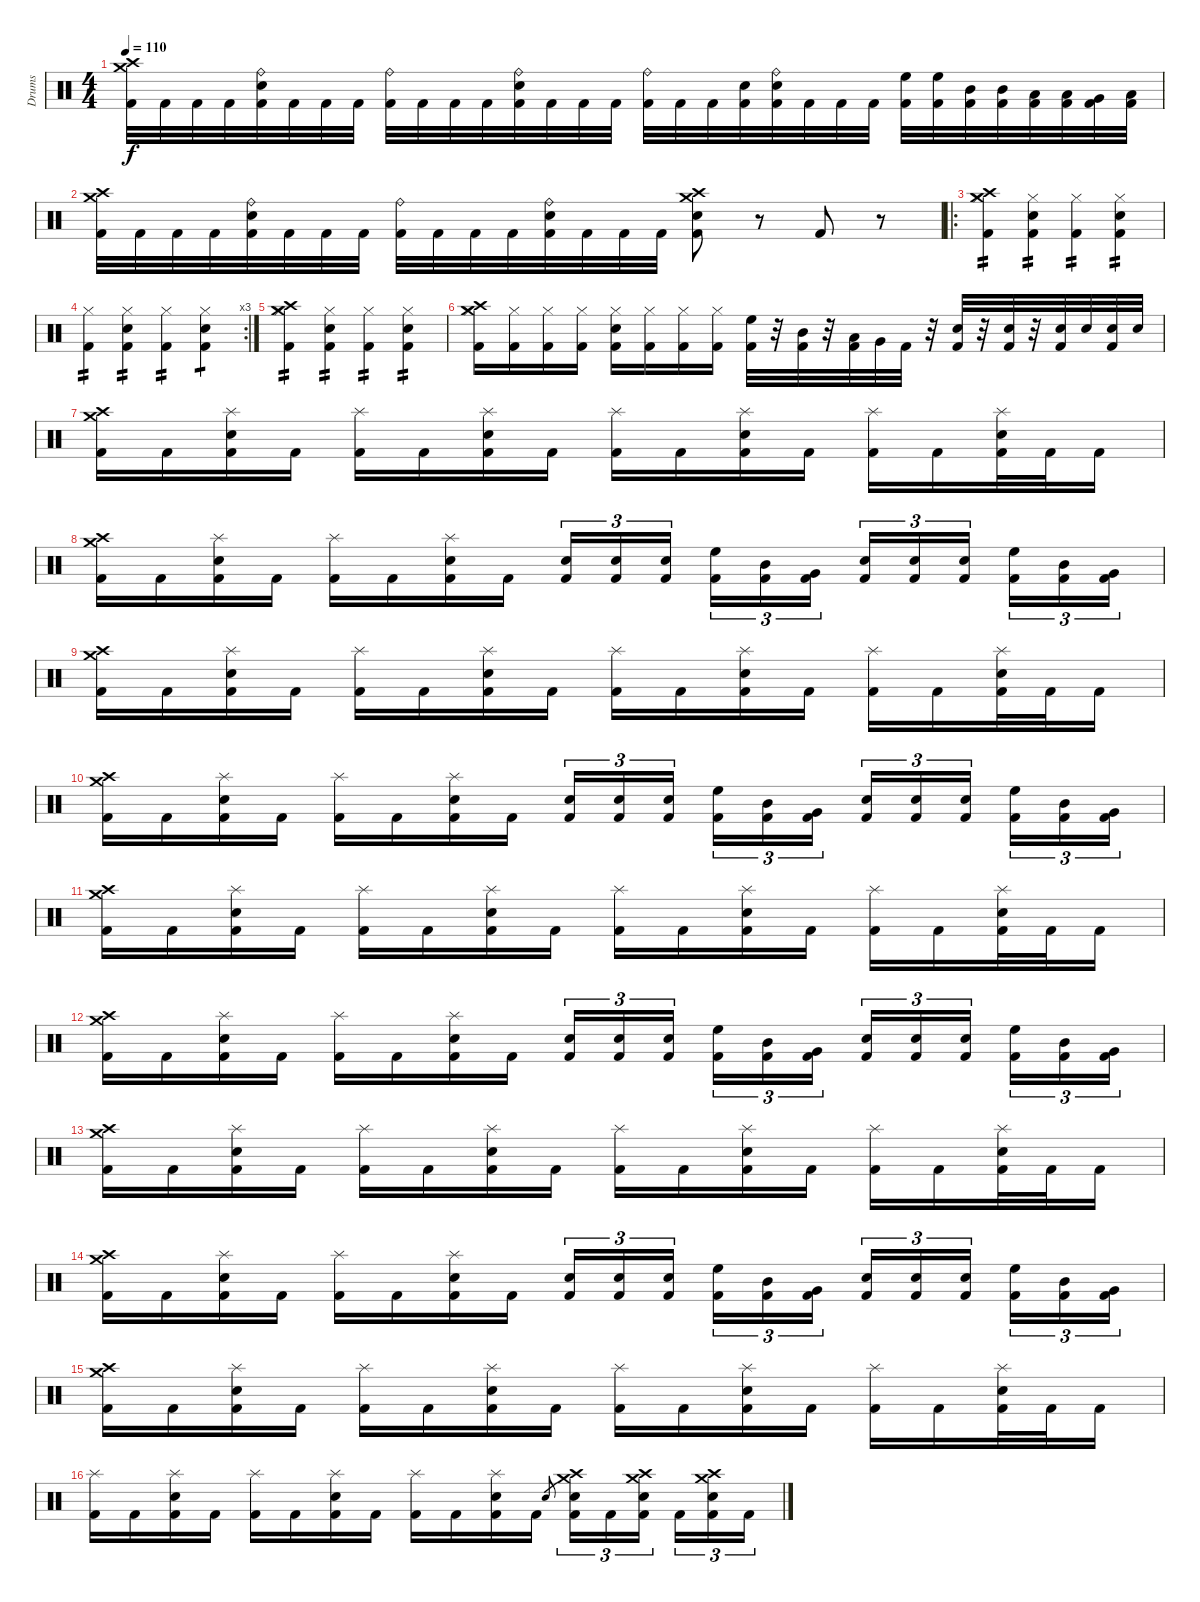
\track ("Drums" "Drums") {instrument percussion}
\staff {score}
\articulation defaults
\ts (4 4)
\tempo 110
\clef neutral
\ks c
("Crash medium (hit)" "Crash high (hit)" "Kick (hit) 2").32{dy f} "Kick (hit) 2".32 "Kick (hit) 2".32 "Kick (hit) 2".32 ("Ride (bell)" "Electric Snare (hit)" "Kick (hit) 2").32 "Kick (hit) 2".32 "Kick (hit) 2".32 "Kick (hit) 2".32 ("Ride (bell)" "Kick (hit) 2").32 "Kick (hit) 2".32 "Kick (hit) 2".32 "Kick (hit) 2".32 ("Ride (bell)" "Electric Snare (hit)" "Kick (hit) 2").32 "Kick (hit) 2".32 "Kick (hit) 2".32 "Kick (hit) 2".32 ("Ride (bell)" "Kick (hit) 2").32 "Kick (hit) 2".32 "Kick (hit) 2".32 ("Electric Snare (hit)" "Kick (hit) 2").32 ("Ride (bell)" "Electric Snare (hit)" "Kick (hit) 2").32 "Kick (hit) 2".32 "Kick (hit) 2".32 "Kick (hit) 2".32 ("High Floor Tom (hit)" "Kick (hit) 2").32 ("High Floor Tom (hit)" "Kick (hit) 2").32 ("Mid Tom (hit)" "Kick (hit) 2").32 ("Mid Tom (hit)" "Kick (hit) 2").32 ("Low Tom (hit)" "Kick (hit) 2").32 ("Low Tom (hit)" "Kick (hit) 2").32 ("Very Low Tom (hit)" "Kick (hit) 2").32 ("Low Floor Tom (hit)" "Kick (hit) 2").32 |
("Crash medium (hit)" "Crash high (hit)" "Kick (hit) 2").32 "Kick (hit) 2".32 "Kick (hit) 2".32 "Kick (hit) 2".32 ("Ride (bell)" "Electric Snare (hit)" "Kick (hit) 2").32 "Kick (hit) 2".32 "Kick (hit) 2".32 "Kick (hit) 2".32 ("Ride (bell)" "Kick (hit) 2").32 "Kick (hit) 2".32 "Kick (hit) 2".32 "Kick (hit) 2".32 ("Ride (bell)" "Electric Snare (hit)" "Kick (hit) 2").32 "Kick (hit) 2".32 "Kick (hit) 2".32 "Kick (hit) 2".32 ("Crash medium (hit)" "Crash high (hit)" "Electric Snare (hit)" "Kick (hit) 2").8 r.8 "Kick (hit) 2".8 r.8 |
\ro
("Crash medium (hit)" "Crash high (hit)" "Hi-Hat (closed)" "Kick (hit) 2").4{tp 2} ("Hi-Hat (closed)" "Electric Snare (hit)" "Kick (hit) 2").4{tp 2} ("Hi-Hat (closed)" "Kick (hit) 2").4{tp 2} ("Hi-Hat (closed)" "Electric Snare (hit)" "Kick (hit) 2").4{tp 2} |
\rc 3
("Hi-Hat (closed)" "Kick (hit) 2").4{tp 2} ("Hi-Hat (closed)" "Electric Snare (hit)" "Kick (hit) 2").4{tp 2} ("Hi-Hat (closed)" "Kick (hit) 2").4{tp 2} ("Hi-Hat (closed)" "Electric Snare (hit)" "Kick (hit) 2").4{tp 1} |
("Crash medium (hit)" "Crash high (hit)" "Hi-Hat (closed)" "Kick (hit) 2").4{tp 2} ("Hi-Hat (closed)" "Electric Snare (hit)" "Kick (hit) 2").4{tp 2} ("Hi-Hat (closed)" "Kick (hit) 2").4{tp 2} ("Hi-Hat (closed)" "Electric Snare (hit)" "Kick (hit) 2").4{tp 2} |
("Crash medium (hit)" "Crash high (hit)" "Hi-Hat (closed)" "Kick (hit) 2").16 ("Hi-Hat (closed)" "Kick (hit) 2").16 ("Hi-Hat (closed)" "Kick (hit) 2").16 ("Hi-Hat (closed)" "Kick (hit) 2").16 ("Hi-Hat (closed)" "Electric Snare (hit)" "Kick (hit) 2").16 ("Hi-Hat (closed)" "Kick (hit) 2").16 ("Hi-Hat (closed)" "Kick (hit) 2").16 ("Hi-Hat (closed)" "Kick (hit) 2").16 ("High Floor Tom (hit)" "Kick (hit) 2").32 r.32 ("Mid Tom (hit)" "Kick (hit) 2").32 r.32 ("Low Tom (hit)" "Kick (hit) 2").32 "Very Low Tom (hit)".32 "Kick (hit) 2".32 r.32 ("Electric Snare (hit)" "Kick (hit) 2").32 r.32 ("Electric Snare (hit)" "Kick (hit) 2").32 r.32 ("Electric Snare (hit)" "Kick (hit) 2").32 "Electric Snare (hit)".32 ("Electric Snare (hit)" "Kick (hit) 2").32 "Electric Snare (hit)".32 |
("Crash medium (hit)" "Crash high (hit)" "Kick (hit) 2").16 "Kick (hit) 2".16 ("Splash (hit)" "Electric Snare (hit)" "Kick (hit) 2").16 "Kick (hit) 2".16 ("Splash (hit)" "Kick (hit) 2").16 "Kick (hit) 2".16 ("Splash (hit)" "Electric Snare (hit)" "Kick (hit) 2").16 "Kick (hit) 2".16 ("Splash (hit)" "Kick (hit) 2").16 "Kick (hit) 2".16 ("Splash (hit)" "Electric Snare (hit)" "Kick (hit) 2").16 "Kick (hit) 2".16 ("Splash (hit)" "Kick (hit) 2").16 "Kick (hit) 2".16 ("Splash (hit)" "Electric Snare (hit)" "Kick (hit) 2").32 "Kick (hit) 2".32 "Kick (hit) 2".16 |
("Crash medium (hit)" "Crash high (hit)" "Kick (hit) 2").16 "Kick (hit) 2".16 ("Splash (hit)" "Electric Snare (hit)" "Kick (hit) 2").16 "Kick (hit) 2".16 ("Splash (hit)" "Kick (hit) 2").16 "Kick (hit) 2".16 ("Splash (hit)" "Electric Snare (hit)" "Kick (hit) 2").16 "Kick (hit) 2".16 ("Electric Snare (hit)" "Kick (hit) 2").16{tu (3 2)} ("Electric Snare (hit)" "Kick (hit) 2").16{tu (3 2)} ("Electric Snare (hit)" "Kick (hit) 2").16{tu (3 2)} ("High Floor Tom (hit)" "Kick (hit) 2").16{tu (3 2)} ("Mid Tom (hit)" "Kick (hit) 2").16{tu (3 2)} ("Very Low Tom (hit)" "Kick (hit) 2").16{tu (3 2)} ("Electric Snare (hit)" "Kick (hit) 2").16{tu (3 2)} ("Electric Snare (hit)" "Kick (hit) 2").16{tu (3 2)} ("Electric Snare (hit)" "Kick (hit) 2").16{tu (3 2)} ("High Floor Tom (hit)" "Kick (hit) 2").16{tu (3 2)} ("Mid Tom (hit)" "Kick (hit) 2").16{tu (3 2)} ("Very Low Tom (hit)" "Kick (hit) 2").16{tu (3 2)} |
("Crash medium (hit)" "Crash high (hit)" "Kick (hit) 2").16 "Kick (hit) 2".16 ("Splash (hit)" "Electric Snare (hit)" "Kick (hit) 2").16 "Kick (hit) 2".16 ("Splash (hit)" "Kick (hit) 2").16 "Kick (hit) 2".16 ("Splash (hit)" "Electric Snare (hit)" "Kick (hit) 2").16 "Kick (hit) 2".16 ("Splash (hit)" "Kick (hit) 2").16 "Kick (hit) 2".16 ("Splash (hit)" "Electric Snare (hit)" "Kick (hit) 2").16 "Kick (hit) 2".16 ("Splash (hit)" "Kick (hit) 2").16 "Kick (hit) 2".16 ("Splash (hit)" "Electric Snare (hit)" "Kick (hit) 2").32 "Kick (hit) 2".32 "Kick (hit) 2".16 |
("Crash medium (hit)" "Crash high (hit)" "Kick (hit) 2").16 "Kick (hit) 2".16 ("Splash (hit)" "Electric Snare (hit)" "Kick (hit) 2").16 "Kick (hit) 2".16 ("Splash (hit)" "Kick (hit) 2").16 "Kick (hit) 2".16 ("Splash (hit)" "Electric Snare (hit)" "Kick (hit) 2").16 "Kick (hit) 2".16 ("Electric Snare (hit)" "Kick (hit) 2").16{tu (3 2)} ("Electric Snare (hit)" "Kick (hit) 2").16{tu (3 2)} ("Electric Snare (hit)" "Kick (hit) 2").16{tu (3 2)} ("High Floor Tom (hit)" "Kick (hit) 2").16{tu (3 2)} ("Mid Tom (hit)" "Kick (hit) 2").16{tu (3 2)} ("Very Low Tom (hit)" "Kick (hit) 2").16{tu (3 2)} ("Electric Snare (hit)" "Kick (hit) 2").16{tu (3 2)} ("Electric Snare (hit)" "Kick (hit) 2").16{tu (3 2)} ("Electric Snare (hit)" "Kick (hit) 2").16{tu (3 2)} ("High Floor Tom (hit)" "Kick (hit) 2").16{tu (3 2)} ("Mid Tom (hit)" "Kick (hit) 2").16{tu (3 2)} ("Very Low Tom (hit)" "Kick (hit) 2").16{tu (3 2)} |
("Crash medium (hit)" "Crash high (hit)" "Kick (hit) 2").16 "Kick (hit) 2".16 ("Splash (hit)" "Electric Snare (hit)" "Kick (hit) 2").16 "Kick (hit) 2".16 ("Splash (hit)" "Kick (hit) 2").16 "Kick (hit) 2".16 ("Splash (hit)" "Electric Snare (hit)" "Kick (hit) 2").16 "Kick (hit) 2".16 ("Splash (hit)" "Kick (hit) 2").16 "Kick (hit) 2".16 ("Splash (hit)" "Electric Snare (hit)" "Kick (hit) 2").16 "Kick (hit) 2".16 ("Splash (hit)" "Kick (hit) 2").16 "Kick (hit) 2".16 ("Splash (hit)" "Electric Snare (hit)" "Kick (hit) 2").32 "Kick (hit) 2".32 "Kick (hit) 2".16 |
("Crash medium (hit)" "Crash high (hit)" "Kick (hit) 2").16 "Kick (hit) 2".16 ("Splash (hit)" "Electric Snare (hit)" "Kick (hit) 2").16 "Kick (hit) 2".16 ("Splash (hit)" "Kick (hit) 2").16 "Kick (hit) 2".16 ("Splash (hit)" "Electric Snare (hit)" "Kick (hit) 2").16 "Kick (hit) 2".16 ("Electric Snare (hit)" "Kick (hit) 2").16{tu (3 2)} ("Electric Snare (hit)" "Kick (hit) 2").16{tu (3 2)} ("Electric Snare (hit)" "Kick (hit) 2").16{tu (3 2)} ("High Floor Tom (hit)" "Kick (hit) 2").16{tu (3 2)} ("Mid Tom (hit)" "Kick (hit) 2").16{tu (3 2)} ("Very Low Tom (hit)" "Kick (hit) 2").16{tu (3 2)} ("Electric Snare (hit)" "Kick (hit) 2").16{tu (3 2)} ("Electric Snare (hit)" "Kick (hit) 2").16{tu (3 2)} ("Electric Snare (hit)" "Kick (hit) 2").16{tu (3 2)} ("High Floor Tom (hit)" "Kick (hit) 2").16{tu (3 2)} ("Mid Tom (hit)" "Kick (hit) 2").16{tu (3 2)} ("Very Low Tom (hit)" "Kick (hit) 2").16{tu (3 2)} |
("Crash medium (hit)" "Crash high (hit)" "Kick (hit) 2").16 "Kick (hit) 2".16 ("Splash (hit)" "Electric Snare (hit)" "Kick (hit) 2").16 "Kick (hit) 2".16 ("Splash (hit)" "Kick (hit) 2").16 "Kick (hit) 2".16 ("Splash (hit)" "Electric Snare (hit)" "Kick (hit) 2").16 "Kick (hit) 2".16 ("Splash (hit)" "Kick (hit) 2").16 "Kick (hit) 2".16 ("Splash (hit)" "Electric Snare (hit)" "Kick (hit) 2").16 "Kick (hit) 2".16 ("Splash (hit)" "Kick (hit) 2").16 "Kick (hit) 2".16 ("Splash (hit)" "Electric Snare (hit)" "Kick (hit) 2").32 "Kick (hit) 2".32 "Kick (hit) 2".16 |
("Crash medium (hit)" "Crash high (hit)" "Kick (hit) 2").16 "Kick (hit) 2".16 ("Splash (hit)" "Electric Snare (hit)" "Kick (hit) 2").16 "Kick (hit) 2".16 ("Splash (hit)" "Kick (hit) 2").16 "Kick (hit) 2".16 ("Splash (hit)" "Electric Snare (hit)" "Kick (hit) 2").16 "Kick (hit) 2".16 ("Electric Snare (hit)" "Kick (hit) 2").16{tu (3 2)} ("Electric Snare (hit)" "Kick (hit) 2").16{tu (3 2)} ("Electric Snare (hit)" "Kick (hit) 2").16{tu (3 2)} ("High Floor Tom (hit)" "Kick (hit) 2").16{tu (3 2)} ("Mid Tom (hit)" "Kick (hit) 2").16{tu (3 2)} ("Very Low Tom (hit)" "Kick (hit) 2").16{tu (3 2)} ("Electric Snare (hit)" "Kick (hit) 2").16{tu (3 2)} ("Electric Snare (hit)" "Kick (hit) 2").16{tu (3 2)} ("Electric Snare (hit)" "Kick (hit) 2").16{tu (3 2)} ("High Floor Tom (hit)" "Kick (hit) 2").16{tu (3 2)} ("Mid Tom (hit)" "Kick (hit) 2").16{tu (3 2)} ("Very Low Tom (hit)" "Kick (hit) 2").16{tu (3 2)} |
("Crash medium (hit)" "Crash high (hit)" "Kick (hit) 2").16 "Kick (hit) 2".16 ("Splash (hit)" "Electric Snare (hit)" "Kick (hit) 2").16 "Kick (hit) 2".16 ("Splash (hit)" "Kick (hit) 2").16 "Kick (hit) 2".16 ("Splash (hit)" "Electric Snare (hit)" "Kick (hit) 2").16 "Kick (hit) 2".16 ("Splash (hit)" "Kick (hit) 2").16 "Kick (hit) 2".16 ("Splash (hit)" "Electric Snare (hit)" "Kick (hit) 2").16 "Kick (hit) 2".16 ("Splash (hit)" "Kick (hit) 2").16 "Kick (hit) 2".16 ("Splash (hit)" "Electric Snare (hit)" "Kick (hit) 2").32 "Kick (hit) 2".32 "Kick (hit) 2".16 |
("Splash (hit)" "Kick (hit) 2").16 "Kick (hit) 2".16 ("Splash (hit)" "Electric Snare (hit)" "Kick (hit) 2").16 "Kick (hit) 2".16 ("Splash (hit)" "Kick (hit) 2").16 "Kick (hit) 2".16 ("Splash (hit)" "Electric Snare (hit)" "Kick (hit) 2").16 "Kick (hit) 2".16 ("Splash (hit)" "Kick (hit) 2").16 "Kick (hit) 2".16 ("Splash (hit)" "Electric Snare (hit)" "Kick (hit) 2").16 "Kick (hit) 2".16 "Electric Snare (hit)".8{gr} ("Crash medium (hit)" "Crash high (hit)" "Electric Snare (hit)" "Kick (hit) 2").16{tu (3 2)} "Kick (hit) 2".16{tu (3 2)} ("Crash medium (hit)" "Crash high (hit)" "Electric Snare (hit)" "Kick (hit) 2").16{tu (3 2)} "Kick (hit) 2".16{tu (3 2)} ("Crash medium (hit)" "Crash high (hit)" "Electric Snare (hit)" "Kick (hit) 2").16{tu (3 2)} "Kick (hit) 2".16{tu (3 2)}
